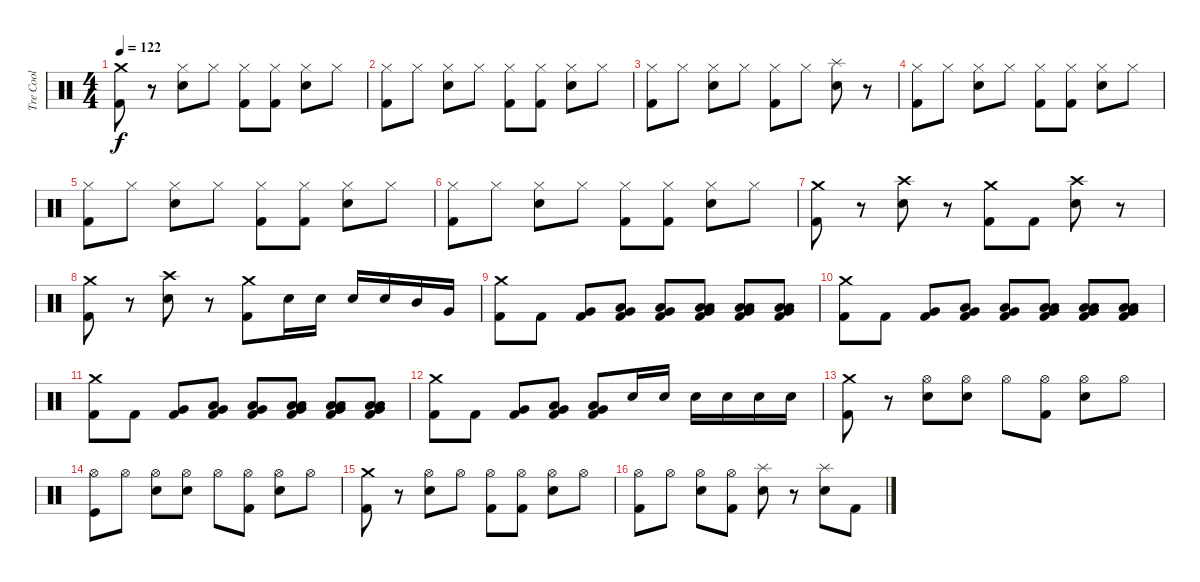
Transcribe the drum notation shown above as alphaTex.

\track ("Tre Cool" "Tre Cool") {instrument percussion}
\staff {score}
\articulation defaults
\ts (4 4)
\tempo 122
\clef neutral
\ks c
("Crash medium (hit)" "Kick (hit) 2").8{dy f} r.8 ("Hi-Hat (closed)" "Electric Snare (hit)").8 "Hi-Hat (closed)".8 ("Kick (hit) 2" "Hi-Hat (closed)").8 ("Hi-Hat (closed)" "Kick (hit) 2").8 ("Electric Snare (hit)" "Hi-Hat (closed)").8 "Hi-Hat (closed)".8 |
("Kick (hit) 2" "Hi-Hat (closed)").8 "Hi-Hat (closed)".8 ("Hi-Hat (closed)" "Electric Snare (hit)").8 "Hi-Hat (closed)".8 ("Kick (hit) 2" "Hi-Hat (closed)").8 ("Kick (hit) 2" "Hi-Hat (closed)").8 ("Hi-Hat (closed)" "Electric Snare (hit)").8 "Hi-Hat (closed)".8 |
("Hi-Hat (closed)" "Kick (hit) 2").8 "Hi-Hat (closed)".8 ("Electric Snare (hit)" "Hi-Hat (closed)").8 "Hi-Hat (closed)".8 ("Hi-Hat (closed)" "Kick (hit) 2").8 "Hi-Hat (closed)".8 ("Splash (hit)" "Electric Snare (hit)").8 r.8 |
("Hi-Hat (closed)" "Kick (hit) 2").8 "Hi-Hat (closed)".8 ("Hi-Hat (closed)" "Electric Snare (hit)").8 "Hi-Hat (closed)".8 ("Kick (hit) 2" "Hi-Hat (closed)").8 ("Kick (hit) 2" "Hi-Hat (closed)").8 ("Electric Snare (hit)" "Hi-Hat (closed)").8 "Hi-Hat (closed)".8 |
("Kick (hit) 2" "Hi-Hat (closed)").8 "Hi-Hat (closed)".8 ("Hi-Hat (closed)" "Electric Snare (hit)").8 "Hi-Hat (closed)".8 ("Kick (hit) 2" "Hi-Hat (closed)").8 ("Kick (hit) 2" "Hi-Hat (closed)").8 ("Electric Snare (hit)" "Hi-Hat (closed)").8 "Hi-Hat (closed)".8 |
("Hi-Hat (closed)" "Kick (hit) 2").8 "Hi-Hat (closed)".8 ("Hi-Hat (closed)" "Electric Snare (hit)").8 "Hi-Hat (closed)".8 ("Hi-Hat (closed)" "Kick (hit) 2").8 ("Hi-Hat (closed)" "Kick (hit) 2").8 ("Hi-Hat (closed)" "Electric Snare (hit)").8 "Hi-Hat (closed)".8 |
("Crash medium (hit)" "Kick (hit) 2").8 r.8 ("Crash high (hit)" "Electric Snare (hit)").8 r.8 ("Crash medium (hit)" "Kick (hit) 2").8 "Kick (hit) 2".8 ("Crash high (hit)" "Electric Snare (hit)").8 r.8 |
("Crash medium (hit)" "Kick (hit) 2").8 r.8 ("Crash high (hit)" "Electric Snare (hit)").8 r.8 ("Crash medium (hit)" "Kick (hit) 2").8 "Electric Snare (hit)".16 "Electric Snare (hit)".16 "Electric Snare (hit)".16 "Electric Snare (hit)".16 "Mid Tom (hit)".16 "Very Low Tom (hit)".16 |
("Crash medium (hit)" "Kick (hit) 2").8 "Kick (hit) 2".8 ("Very Low Tom (hit)" "Kick (hit) 2").8 ("Low Tom (hit)" "Very Low Tom (hit)" "Kick (hit) 2").8 ("Low Tom (hit)" "Very Low Tom (hit)" "Kick (hit) 2").8 ("Low Floor Tom (hit)" "Very Low Tom (hit)" "Low Tom (hit)" "Kick (hit) 2").8 ("Low Floor Tom (hit)" "Very Low Tom (hit)" "Low Tom (hit)" "Kick (hit) 2").8 ("Low Floor Tom (hit)" "Very Low Tom (hit)" "Low Tom (hit)" "Kick (hit) 2").8 |
("Crash medium (hit)" "Kick (hit) 2").8 "Kick (hit) 2".8 ("Very Low Tom (hit)" "Kick (hit) 2").8 ("Low Tom (hit)" "Very Low Tom (hit)" "Kick (hit) 2").8 ("Low Tom (hit)" "Very Low Tom (hit)" "Kick (hit) 2").8 ("Low Floor Tom (hit)" "Very Low Tom (hit)" "Low Tom (hit)" "Kick (hit) 2").8 ("Low Floor Tom (hit)" "Very Low Tom (hit)" "Low Tom (hit)" "Kick (hit) 2").8 ("Low Floor Tom (hit)" "Very Low Tom (hit)" "Low Tom (hit)" "Kick (hit) 2").8 |
("Crash medium (hit)" "Kick (hit) 2").8 "Kick (hit) 2".8 ("Very Low Tom (hit)" "Kick (hit) 2").8 ("Low Tom (hit)" "Very Low Tom (hit)" "Kick (hit) 2").8 ("Low Tom (hit)" "Very Low Tom (hit)" "Kick (hit) 2").8 ("Low Floor Tom (hit)" "Very Low Tom (hit)" "Low Tom (hit)" "Kick (hit) 2").8 ("Low Floor Tom (hit)" "Very Low Tom (hit)" "Low Tom (hit)" "Kick (hit) 2").8 ("Low Floor Tom (hit)" "Very Low Tom (hit)" "Low Tom (hit)" "Kick (hit) 2").8 |
("Crash medium (hit)" "Kick (hit) 2").8 "Kick (hit) 2".8 ("Very Low Tom (hit)" "Kick (hit) 2").8 ("Low Tom (hit)" "Very Low Tom (hit)" "Kick (hit) 2").8 ("Low Tom (hit)" "Very Low Tom (hit)" "Kick (hit) 2").8 "Electric Snare (hit)".16 "Electric Snare (hit)".16 "Electric Snare (hit)".16 "Electric Snare (hit)".16 "Electric Snare (hit)".16 "Electric Snare (hit)".16 |
("Kick (hit) 2" "Crash medium (hit)").8 r.8 ("Hi-Hat (open)" "Electric Snare (hit)").8 ("Hi-Hat (open)" "Electric Snare (hit)").8 "Hi-Hat (open)".8 ("Hi-Hat (open)" "Kick (hit) 2").8 ("Hi-Hat (open)" "Electric Snare (hit)").8 "Hi-Hat (open)".8 |
("Hi-Hat (open)" "Kick (hit)").8 "Hi-Hat (open)".8 ("Hi-Hat (open)" "Electric Snare (hit)").8 ("Hi-Hat (open)" "Electric Snare (hit)").8 "Hi-Hat (open)".8 ("Hi-Hat (open)" "Kick (hit) 2").8 ("Hi-Hat (open)" "Electric Snare (hit)").8 "Hi-Hat (open)".8 |
("Crash medium (hit)" "Kick (hit) 2").8 r.8 ("Hi-Hat (open)" "Electric Snare (hit)").8 "Hi-Hat (open)".8 ("Hi-Hat (open)" "Kick (hit) 2").8 ("Hi-Hat (open)" "Kick (hit) 2").8 ("Hi-Hat (open)" "Electric Snare (hit)").8 "Hi-Hat (open)".8 |
("Hi-Hat (open)" "Kick (hit) 2").8 "Hi-Hat (open)".8 ("Hi-Hat (open)" "Electric Snare (hit)").8 ("Hi-Hat (open)" "Kick (hit) 2").8 ("Splash (hit)" "Electric Snare (hit)").8 r.8 ("Splash (hit)" "Electric Snare (hit)").8 "Kick (hit) 2".8
